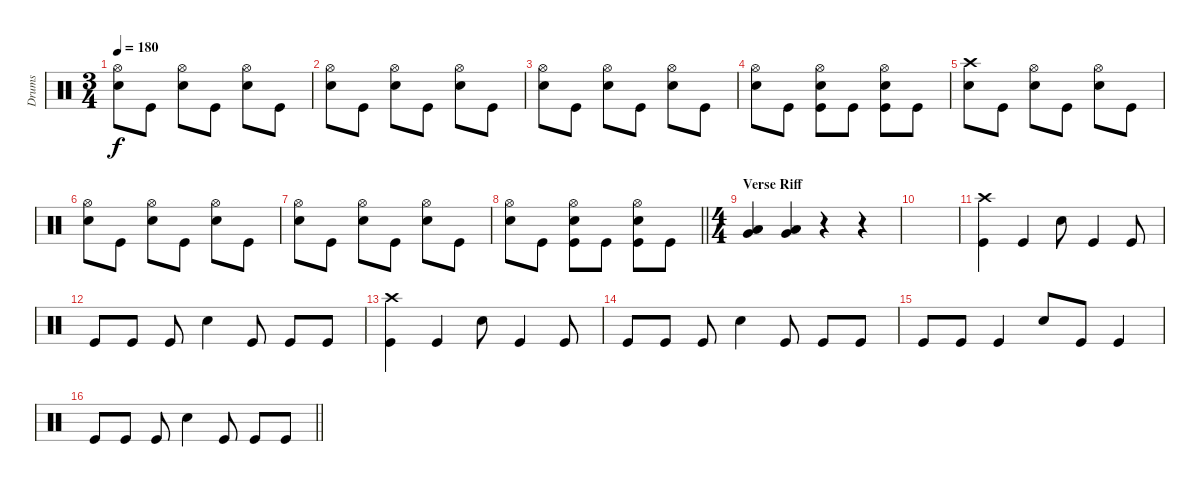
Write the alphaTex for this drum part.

\track ("Drums" "Drums") {instrument percussion}
\staff {score}
\articulation defaults
\ts (3 4)
\tempo 180
\clef neutral
\ks c
("Hi-Hat (open)" "Snare (hit) 2").8{dy f} "Kick (hit)".8 ("Hi-Hat (open)" "Snare (hit) 2").8 "Kick (hit)".8 ("Hi-Hat (open)" "Snare (hit) 2").8 "Kick (hit)".8 |
("Hi-Hat (open)" "Snare (hit) 2").8 "Kick (hit)".8 ("Hi-Hat (open)" "Snare (hit) 2").8 "Kick (hit)".8 ("Hi-Hat (open)" "Snare (hit) 2").8 "Kick (hit)".8 |
("Hi-Hat (open)" "Snare (hit) 2").8 "Kick (hit)".8 ("Hi-Hat (open)" "Snare (hit) 2").8 "Kick (hit)".8 ("Hi-Hat (open)" "Snare (hit) 2").8 "Kick (hit)".8 |
("Hi-Hat (open)" "Snare (hit) 2").8 "Kick (hit)".8 ("Hi-Hat (open)" "Snare (hit) 2" "Kick (hit)").8 "Kick (hit)".8 ("Hi-Hat (open)" "Snare (hit) 2" "Kick (hit)").8 "Kick (hit)".8 |
("Crash high (hit)" "Snare (hit) 2").8 "Kick (hit)".8 ("Hi-Hat (open)" "Snare (hit) 2").8 "Kick (hit)".8 ("Hi-Hat (open)" "Snare (hit) 2").8 "Kick (hit)".8 |
("Hi-Hat (open)" "Snare (hit) 2").8 "Kick (hit)".8 ("Hi-Hat (open)" "Snare (hit) 2").8 "Kick (hit)".8 ("Hi-Hat (open)" "Snare (hit) 2").8 "Kick (hit)".8 |
("Hi-Hat (open)" "Snare (hit) 2").8 "Kick (hit)".8 ("Hi-Hat (open)" "Snare (hit) 2").8 "Kick (hit)".8 ("Hi-Hat (open)" "Snare (hit) 2").8 "Kick (hit)".8 |
\barLineRight lightlight
("Hi-Hat (open)" "Snare (hit) 2").8 "Kick (hit)".8 ("Hi-Hat (open)" "Snare (hit) 2" "Kick (hit)").8 "Kick (hit)".8 ("Hi-Hat (open)" "Snare (hit) 2" "Kick (hit)").8 "Kick (hit)".8 |
\ts (4 4)
\section ("" "Verse Riff")
("Very Low Tom (hit)" "Low Floor Tom (hit)").4 ("Very Low Tom (hit)" "Low Floor Tom (hit)").4 r.4 r.4 |
|
("Crash high (hit)" "Kick (hit)").4 "Kick (hit)".4 "Snare (hit) 2".8 "Kick (hit)".4 "Kick (hit)".8 |
"Kick (hit)".8 "Kick (hit)".8 "Kick (hit)".8 "Snare (hit) 2".4 "Kick (hit)".8 "Kick (hit)".8 "Kick (hit)".8 |
("Crash high (hit)" "Kick (hit)").4 "Kick (hit)".4 "Snare (hit) 2".8 "Kick (hit)".4 "Kick (hit)".8 |
"Kick (hit)".8 "Kick (hit)".8 "Kick (hit)".8 "Snare (hit) 2".4 "Kick (hit)".8 "Kick (hit)".8 "Kick (hit)".8 |
"Kick (hit)".8 "Kick (hit)".8 "Kick (hit)".4 "Snare (hit) 2".8 "Kick (hit)".8 "Kick (hit)".4 |
\barLineRight lightlight "Kick (hit)".8 "Kick (hit)".8 "Kick (hit)".8 "Snare (hit) 2".4 "Kick (hit)".8 "Kick (hit)".8 "Kick (hit)".8
